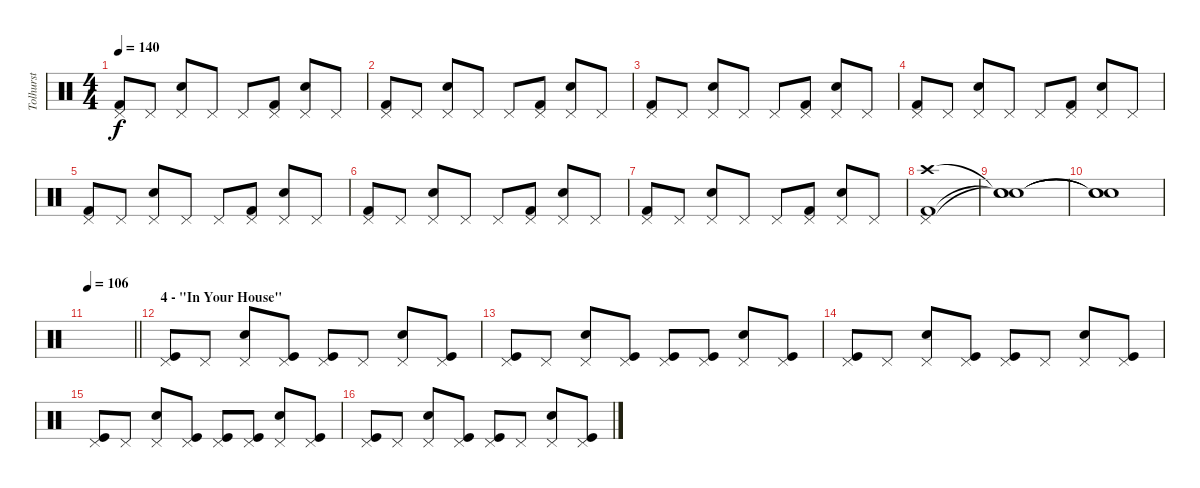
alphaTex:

\track ("Tolhurst" "Tolhurst") {instrument percussion}
\staff {score}
\articulation defaults
\ts (4 4)
\tempo 140
\clef neutral
\ks c
("Kick (hit) 2" "Pedal Hi-Hat (hit)").8{dy f} "Pedal Hi-Hat (hit)".8 ("Snare (hit) 2" "Pedal Hi-Hat (hit)").8 "Pedal Hi-Hat (hit)".8 "Pedal Hi-Hat (hit)".8 ("Kick (hit) 2" "Pedal Hi-Hat (hit)").8 ("Snare (hit) 2" "Pedal Hi-Hat (hit)").8 "Pedal Hi-Hat (hit)".8 |
("Kick (hit) 2" "Pedal Hi-Hat (hit)").8 "Pedal Hi-Hat (hit)".8 ("Snare (hit) 2" "Pedal Hi-Hat (hit)").8 "Pedal Hi-Hat (hit)".8 "Pedal Hi-Hat (hit)".8 ("Kick (hit) 2" "Pedal Hi-Hat (hit)").8 ("Snare (hit) 2" "Pedal Hi-Hat (hit)").8 "Pedal Hi-Hat (hit)".8 |
("Kick (hit) 2" "Pedal Hi-Hat (hit)").8 "Pedal Hi-Hat (hit)".8 ("Snare (hit) 2" "Pedal Hi-Hat (hit)").8 "Pedal Hi-Hat (hit)".8 "Pedal Hi-Hat (hit)".8 ("Kick (hit) 2" "Pedal Hi-Hat (hit)").8 ("Snare (hit) 2" "Pedal Hi-Hat (hit)").8 "Pedal Hi-Hat (hit)".8 |
("Kick (hit) 2" "Pedal Hi-Hat (hit)").8 "Pedal Hi-Hat (hit)".8 ("Snare (hit) 2" "Pedal Hi-Hat (hit)").8 "Pedal Hi-Hat (hit)".8 "Pedal Hi-Hat (hit)".8 ("Kick (hit) 2" "Pedal Hi-Hat (hit)").8 ("Snare (hit) 2" "Pedal Hi-Hat (hit)").8 "Pedal Hi-Hat (hit)".8 |
("Kick (hit) 2" "Pedal Hi-Hat (hit)").8 "Pedal Hi-Hat (hit)".8 ("Snare (hit) 2" "Pedal Hi-Hat (hit)").8 "Pedal Hi-Hat (hit)".8 "Pedal Hi-Hat (hit)".8 ("Kick (hit) 2" "Pedal Hi-Hat (hit)").8 ("Snare (hit) 2" "Pedal Hi-Hat (hit)").8 "Pedal Hi-Hat (hit)".8 |
("Kick (hit) 2" "Pedal Hi-Hat (hit)").8 "Pedal Hi-Hat (hit)".8 ("Snare (hit) 2" "Pedal Hi-Hat (hit)").8 "Pedal Hi-Hat (hit)".8 "Pedal Hi-Hat (hit)".8 ("Kick (hit) 2" "Pedal Hi-Hat (hit)").8 ("Snare (hit) 2" "Pedal Hi-Hat (hit)").8 "Pedal Hi-Hat (hit)".8 |
("Kick (hit) 2" "Pedal Hi-Hat (hit)").8 "Pedal Hi-Hat (hit)".8 ("Snare (hit) 2" "Pedal Hi-Hat (hit)").8 "Pedal Hi-Hat (hit)".8 "Pedal Hi-Hat (hit)".8 ("Kick (hit) 2" "Pedal Hi-Hat (hit)").8 ("Snare (hit) 2" "Pedal Hi-Hat (hit)").8 "Pedal Hi-Hat (hit)".8 |
("Kick (hit) 2" "Pedal Hi-Hat (hit)" "Crash high (hit)").1 |
("Snare (hit)"{t} "Snare (hit)"{t} "Snare (hit)"{t}).1 |
("Snare (hit)"{t} "Snare (hit)"{t} "Snare (hit)"{t}).1 |
\tempo 106
\barLineRight lightlight
|
\section ("" "4 - \"In Your House\"")
("Pedal Hi-Hat (hit)" "Kick (hit)").8{volume 13} "Pedal Hi-Hat (hit)".8 ("Pedal Hi-Hat (hit)" "Snare (hit) 2").8 ("Pedal Hi-Hat (hit)" "Kick (hit)").8 ("Pedal Hi-Hat (hit)" "Kick (hit)").8 "Pedal Hi-Hat (hit)".8 ("Pedal Hi-Hat (hit)" "Snare (hit) 2").8 ("Pedal Hi-Hat (hit)" "Kick (hit)").8 |
("Pedal Hi-Hat (hit)" "Kick (hit)").8 "Pedal Hi-Hat (hit)".8 ("Pedal Hi-Hat (hit)" "Snare (hit) 2").8 ("Pedal Hi-Hat (hit)" "Kick (hit)").8 ("Pedal Hi-Hat (hit)" "Kick (hit)").8 ("Pedal Hi-Hat (hit)" "Kick (hit)").8 ("Pedal Hi-Hat (hit)" "Snare (hit) 2").8 ("Pedal Hi-Hat (hit)" "Kick (hit)").8 |
("Pedal Hi-Hat (hit)" "Kick (hit)").8 "Pedal Hi-Hat (hit)".8 ("Pedal Hi-Hat (hit)" "Snare (hit) 2").8 ("Pedal Hi-Hat (hit)" "Kick (hit)").8 ("Pedal Hi-Hat (hit)" "Kick (hit)").8 "Pedal Hi-Hat (hit)".8 ("Pedal Hi-Hat (hit)" "Snare (hit) 2").8 ("Pedal Hi-Hat (hit)" "Kick (hit)").8 |
("Pedal Hi-Hat (hit)" "Kick (hit)").8 "Pedal Hi-Hat (hit)".8 ("Pedal Hi-Hat (hit)" "Snare (hit) 2").8 ("Pedal Hi-Hat (hit)" "Kick (hit)").8 ("Pedal Hi-Hat (hit)" "Kick (hit)").8 ("Pedal Hi-Hat (hit)" "Kick (hit)").8 ("Pedal Hi-Hat (hit)" "Snare (hit) 2").8 ("Pedal Hi-Hat (hit)" "Kick (hit)").8 |
("Pedal Hi-Hat (hit)" "Kick (hit)").8 "Pedal Hi-Hat (hit)".8 ("Pedal Hi-Hat (hit)" "Snare (hit) 2").8 ("Pedal Hi-Hat (hit)" "Kick (hit)").8 ("Pedal Hi-Hat (hit)" "Kick (hit)").8 "Pedal Hi-Hat (hit)".8 ("Pedal Hi-Hat (hit)" "Snare (hit) 2").8 ("Pedal Hi-Hat (hit)" "Kick (hit)").8
